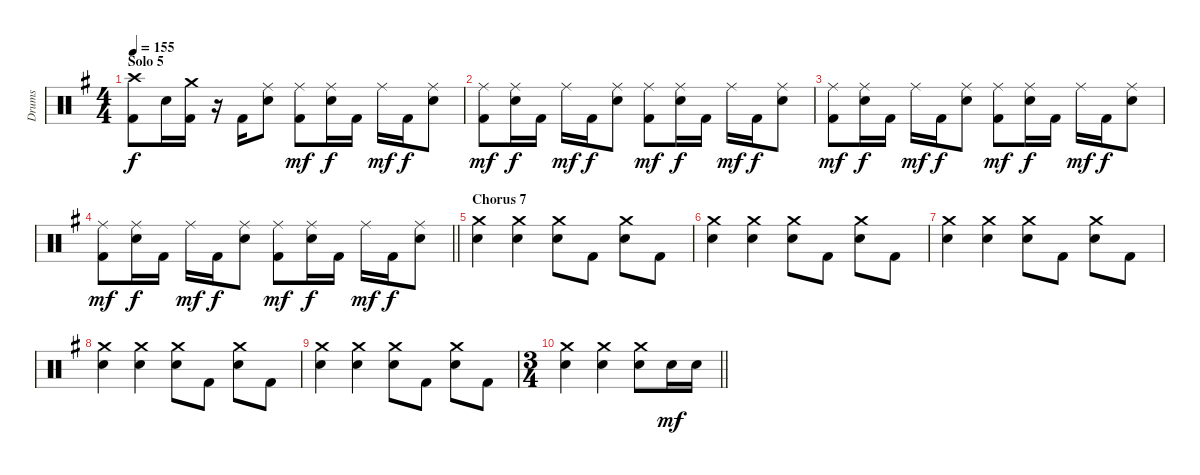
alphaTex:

\track ("Drums" "Drums") {instrument percussion}
\staff {score}
\articulation defaults
\ts (4 4)
\section ("" "Solo 5")
\tempo 155
\clef neutral
\ks g
("Crash high (hit)" "Kick (hit) 2").8{dy f volume 10} "Electric Snare (hit)".16 ("Crash medium (hit)" "Kick (hit) 2").16 r.16 "Kick (hit) 2".16 ("Ride (middle)" "Electric Snare (hit)").8 ("Ride (middle)" "Kick (hit) 2").8{dy mf} ("Ride (middle)" "Electric Snare (hit)").16{dy f} "Kick (hit) 2".16 "Ride (middle)".16{dy mf} "Kick (hit) 2".16{dy f} ("Ride (middle)" "Electric Snare (hit)").8 |
("Ride (middle)" "Kick (hit) 2").8{dy mf} ("Ride (middle)" "Electric Snare (hit)").16{dy f} "Kick (hit) 2".16 "Ride (middle)".16{dy mf} "Kick (hit) 2".16{dy f} ("Ride (middle)" "Electric Snare (hit)").8 ("Ride (middle)" "Kick (hit) 2").8{dy mf} ("Ride (middle)" "Electric Snare (hit)").16{dy f} "Kick (hit) 2".16 "Ride (middle)".16{dy mf} "Kick (hit) 2".16{dy f} ("Ride (middle)" "Electric Snare (hit)").8 |
("Ride (middle)" "Kick (hit) 2").8{dy mf} ("Ride (middle)" "Electric Snare (hit)").16{dy f} "Kick (hit) 2".16 "Ride (middle)".16{dy mf} "Kick (hit) 2".16{dy f} ("Ride (middle)" "Electric Snare (hit)").8 ("Ride (middle)" "Kick (hit) 2").8{dy mf} ("Ride (middle)" "Electric Snare (hit)").16{dy f} "Kick (hit) 2".16 "Ride (middle)".16{dy mf} "Kick (hit) 2".16{dy f} ("Ride (middle)" "Electric Snare (hit)").8 |
\barLineRight lightlight
("Ride (middle)" "Kick (hit) 2").8{dy mf} ("Ride (middle)" "Electric Snare (hit)").16{dy f} "Kick (hit) 2".16 "Ride (middle)".16{dy mf} "Kick (hit) 2".16{dy f} ("Ride (middle)" "Electric Snare (hit)").8 ("Ride (middle)" "Kick (hit) 2").8{dy mf} ("Ride (middle)" "Electric Snare (hit)").16{dy f} "Kick (hit) 2".16 "Ride (middle)".16{dy mf} "Kick (hit) 2".16{dy f} ("Ride (middle)" "Electric Snare (hit)").8 |
\section ("" "Chorus 7")
("Crash medium (hit)" "Electric Snare (hit)").4{volume 4} ("Crash medium (hit)" "Electric Snare (hit)").4 ("Crash medium (hit)" "Electric Snare (hit)").8 "Kick (hit) 2".8 ("Crash medium (hit)" "Electric Snare (hit)").8 "Kick (hit) 2".8 |
("Crash medium (hit)" "Electric Snare (hit)").4 ("Crash medium (hit)" "Electric Snare (hit)").4 ("Crash medium (hit)" "Electric Snare (hit)").8 "Kick (hit) 2".8 ("Crash medium (hit)" "Electric Snare (hit)").8 "Kick (hit) 2".8 |
("Crash medium (hit)" "Electric Snare (hit)").4 ("Crash medium (hit)" "Electric Snare (hit)").4 ("Crash medium (hit)" "Electric Snare (hit)").8 "Kick (hit) 2".8 ("Crash medium (hit)" "Electric Snare (hit)").8 "Kick (hit) 2".8 |
("Crash medium (hit)" "Electric Snare (hit)").4 ("Crash medium (hit)" "Electric Snare (hit)").4 ("Crash medium (hit)" "Electric Snare (hit)").8 "Kick (hit) 2".8 ("Crash medium (hit)" "Electric Snare (hit)").8 "Kick (hit) 2".8 |
("Crash medium (hit)" "Electric Snare (hit)").4{volume 0} ("Crash medium (hit)" "Electric Snare (hit)").4 ("Crash medium (hit)" "Electric Snare (hit)").8 "Kick (hit) 2".8 ("Crash medium (hit)" "Electric Snare (hit)").8 "Kick (hit) 2".8 |
\ts (3 4)
\barLineRight lightlight
("Crash medium (hit)" "Electric Snare (hit)").4 ("Crash medium (hit)" "Electric Snare (hit)").4 ("Crash medium (hit)" "Electric Snare (hit)").8 "Electric Snare (hit)".16{dy mf} "Electric Snare (hit)".16
